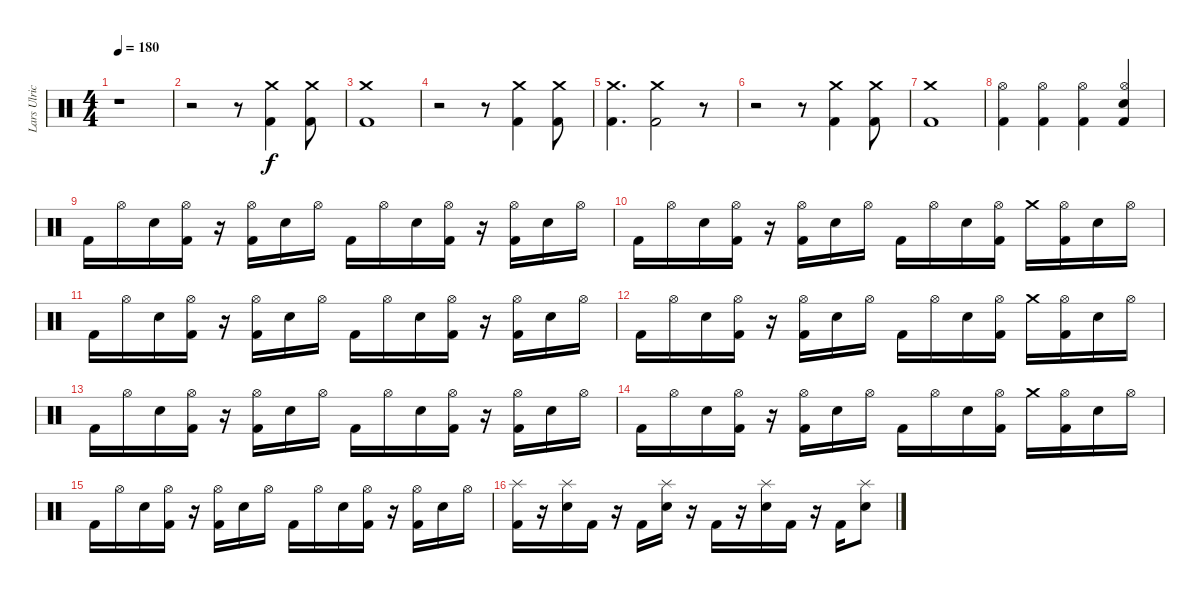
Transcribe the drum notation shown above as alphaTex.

\track ("Lars Ulrich" "Lars Ulric") {instrument percussion}
\staff {score}
\articulation defaults
\ts (4 4)
\tempo 180
\clef neutral
\ks c
r.1{dy f} |
r.2 r.8 ("Crash medium (hit)" "Kick (hit) 2").4 ("Crash medium (hit)" "Kick (hit) 2").8 |
("Crash medium (hit)" "Kick (hit) 2").1 |
r.2 r.8 ("Crash medium (hit)" "Kick (hit) 2").4 ("Crash medium (hit)" "Kick (hit) 2").8 |
("Crash medium (hit)" "Kick (hit) 2").4{d} ("Crash medium (hit)" "Kick (hit) 2").2 r.8 |
r.2 r.8 ("Crash medium (hit)" "Kick (hit) 2").4 ("Crash medium (hit)" "Kick (hit) 2").8 |
("Crash medium (hit)" "Kick (hit) 2").1 |
("Hi-Hat (open)" "Kick (hit) 2").4 ("Hi-Hat (open)" "Kick (hit) 2").4 ("Hi-Hat (open)" "Kick (hit) 2").4 ("Hi-Hat (open)" "Electric Snare (hit)" "Kick (hit) 2").4 |
"Kick (hit) 2".16 "Hi-Hat (open)".16 "Electric Snare (hit)".16 ("Hi-Hat (open)" "Kick (hit) 2").16 r.16 ("Hi-Hat (open)" "Kick (hit) 2").16 "Electric Snare (hit)".16 "Hi-Hat (open)".16 "Kick (hit) 2".16 "Hi-Hat (open)".16 "Electric Snare (hit)".16 ("Hi-Hat (open)" "Kick (hit) 2").16 r.16 ("Hi-Hat (open)" "Kick (hit) 2").16 "Electric Snare (hit)".16 "Hi-Hat (open)".16 |
"Kick (hit) 2".16 "Hi-Hat (open)".16 "Electric Snare (hit)".16 ("Hi-Hat (open)" "Kick (hit) 2").16 r.16 ("Hi-Hat (open)" "Kick (hit) 2").16 "Electric Snare (hit)".16 "Hi-Hat (open)".16 "Kick (hit) 2".16 "Hi-Hat (open)".16 "Electric Snare (hit)".16 ("Hi-Hat (open)" "Kick (hit) 2").16 "Crash medium (hit)".16 ("Hi-Hat (open)" "Kick (hit) 2").16 "Electric Snare (hit)".16 "Hi-Hat (open)".16 |
"Kick (hit) 2".16 "Hi-Hat (open)".16 "Electric Snare (hit)".16 ("Hi-Hat (open)" "Kick (hit) 2").16 r.16 ("Hi-Hat (open)" "Kick (hit) 2").16 "Electric Snare (hit)".16 "Hi-Hat (open)".16 "Kick (hit) 2".16 "Hi-Hat (open)".16 "Electric Snare (hit)".16 ("Hi-Hat (open)" "Kick (hit) 2").16 r.16 ("Hi-Hat (open)" "Kick (hit) 2").16 "Electric Snare (hit)".16 "Hi-Hat (open)".16 |
"Kick (hit) 2".16 "Hi-Hat (open)".16 "Electric Snare (hit)".16 ("Hi-Hat (open)" "Kick (hit) 2").16 r.16 ("Hi-Hat (open)" "Kick (hit) 2").16 "Electric Snare (hit)".16 "Hi-Hat (open)".16 "Kick (hit) 2".16 "Hi-Hat (open)".16 "Electric Snare (hit)".16 ("Hi-Hat (open)" "Kick (hit) 2").16 "Crash medium (hit)".16 ("Hi-Hat (open)" "Kick (hit) 2").16 "Electric Snare (hit)".16 "Hi-Hat (open)".16 |
"Kick (hit) 2".16 "Hi-Hat (open)".16 "Electric Snare (hit)".16 ("Hi-Hat (open)" "Kick (hit) 2").16 r.16 ("Hi-Hat (open)" "Kick (hit) 2").16 "Electric Snare (hit)".16 "Hi-Hat (open)".16 "Kick (hit) 2".16 "Hi-Hat (open)".16 "Electric Snare (hit)".16 ("Hi-Hat (open)" "Kick (hit) 2").16 r.16 ("Hi-Hat (open)" "Kick (hit) 2").16 "Electric Snare (hit)".16 "Hi-Hat (open)".16 |
"Kick (hit) 2".16 "Hi-Hat (open)".16 "Electric Snare (hit)".16 ("Hi-Hat (open)" "Kick (hit) 2").16 r.16 ("Hi-Hat (open)" "Kick (hit) 2").16 "Electric Snare (hit)".16 "Hi-Hat (open)".16 "Kick (hit) 2".16 "Hi-Hat (open)".16 "Electric Snare (hit)".16 ("Hi-Hat (open)" "Kick (hit) 2").16 "Crash medium (hit)".16 ("Hi-Hat (open)" "Kick (hit) 2").16 "Electric Snare (hit)".16 "Hi-Hat (open)".16 |
"Kick (hit) 2".16 "Hi-Hat (open)".16 "Electric Snare (hit)".16 ("Hi-Hat (open)" "Kick (hit) 2").16 r.16 ("Hi-Hat (open)" "Kick (hit) 2").16 "Electric Snare (hit)".16 "Hi-Hat (open)".16 "Kick (hit) 2".16 "Hi-Hat (open)".16 "Electric Snare (hit)".16 ("Hi-Hat (open)" "Kick (hit) 2").16 r.16 ("Hi-Hat (open)" "Kick (hit) 2").16 "Electric Snare (hit)".16 "Hi-Hat (open)".16 |
("Splash (hit)" "Kick (hit) 2").16 r.16 ("Splash (hit)" "Electric Snare (hit)").16 "Kick (hit) 2".16 r.16 "Kick (hit) 2".16 ("Splash (hit)" "Electric Snare (hit)").16 r.16 "Kick (hit) 2".16 r.16 ("Splash (hit)" "Electric Snare (hit)").16 "Kick (hit) 2".16 r.16 "Kick (hit) 2".16 ("Splash (hit)" "Electric Snare (hit)").8
